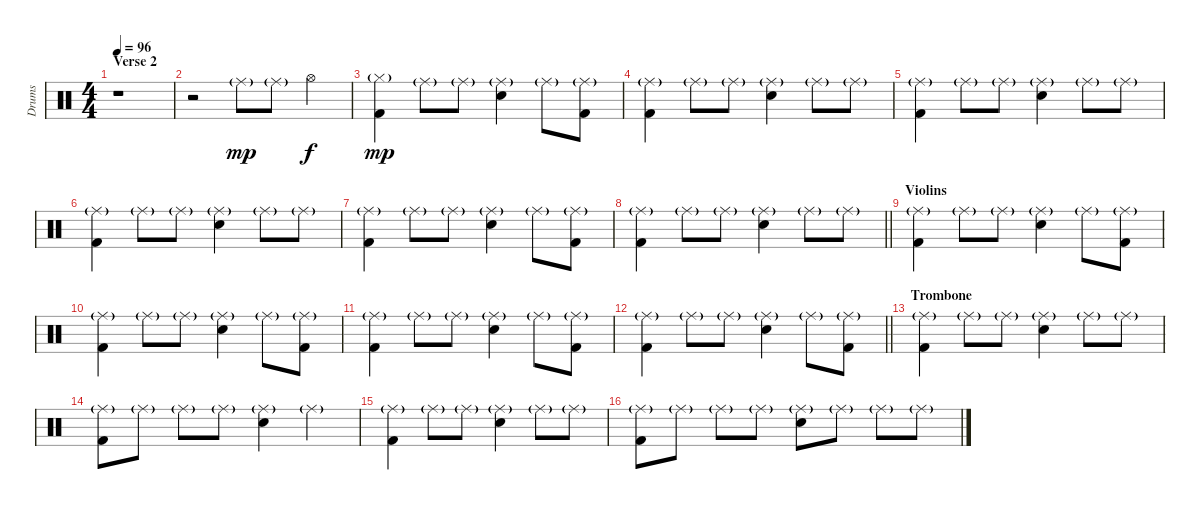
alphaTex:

\track ("Drums" "Drums") {instrument percussion}
\staff {score}
\articulation defaults
\ts (4 4)
\section ("" "Verse 2")
\tempo 96
\clef neutral
\ks c
r.1{dy f} |
r.2 "Ride (middle)"{g}.8{dy mp} "Ride (middle)"{g}.8 "Hi-Hat (open)".4{dy f} |
("Hi-Hat (closed)"{g} "Kick (hit) 2").4{dy mp} "Ride (middle)"{g}.8 "Ride (middle)"{g}.8 ("Ride (middle)"{g} "Electric Snare (hit)").4 "Ride (middle)"{g}.8 ("Ride (middle)"{g} "Kick (hit) 2").8 |
("Ride (middle)"{g} "Kick (hit) 2").4 "Ride (middle)"{g}.8 "Ride (middle)"{g}.8 ("Ride (middle)"{g} "Electric Snare (hit)").4 "Ride (middle)"{g}.8 "Ride (middle)"{g}.8 |
("Ride (middle)"{g} "Kick (hit) 2").4 "Ride (middle)"{g}.8 "Ride (middle)"{g}.8 ("Ride (middle)"{g} "Electric Snare (hit)").4 "Ride (middle)"{g}.8 "Ride (middle)"{g}.8 |
("Ride (middle)"{g} "Kick (hit) 2").4 "Ride (middle)"{g}.8 "Ride (middle)"{g}.8 ("Ride (middle)"{g} "Electric Snare (hit)").4 "Ride (middle)"{g}.8 "Ride (middle)"{g}.8 |
("Ride (middle)"{g} "Kick (hit) 2").4 "Ride (middle)"{g}.8 "Ride (middle)"{g}.8 ("Ride (middle)"{g} "Electric Snare (hit)").4 "Ride (middle)"{g}.8 ("Ride (middle)"{g} "Kick (hit) 2").8 |
\barLineRight lightlight
("Ride (middle)"{g} "Kick (hit) 2").4 "Ride (middle)"{g}.8 "Ride (middle)"{g}.8 ("Ride (middle)"{g} "Electric Snare (hit)").4 "Ride (middle)"{g}.8 "Ride (middle)"{g}.8 |
\section ("" "Violins")
("Ride (middle)"{g} "Kick (hit) 2").4 "Ride (middle)"{g}.8 "Ride (middle)"{g}.8 ("Ride (middle)"{g} "Electric Snare (hit)").4 "Ride (middle)"{g}.8 ("Ride (middle)"{g} "Kick (hit) 2").8 |
("Ride (middle)"{g} "Kick (hit) 2").4 "Ride (middle)"{g}.8 "Ride (middle)"{g}.8 ("Ride (middle)"{g} "Electric Snare (hit)").4 "Ride (middle)"{g}.8 ("Ride (middle)"{g} "Kick (hit) 2").8 |
("Ride (middle)"{g} "Kick (hit) 2").4 "Ride (middle)"{g}.8 "Ride (middle)"{g}.8 ("Ride (middle)"{g} "Electric Snare (hit)").4 "Ride (middle)"{g}.8 ("Ride (middle)"{g} "Kick (hit) 2").8 |
\barLineRight lightlight
("Ride (middle)"{g} "Kick (hit) 2").4 "Ride (middle)"{g}.8 "Ride (middle)"{g}.8 ("Ride (middle)"{g} "Electric Snare (hit)").4 "Ride (middle)"{g}.8 ("Ride (middle)"{g} "Kick (hit) 2").8 |
\section ("" "Trombone")
("Ride (middle)"{g} "Kick (hit) 2").4 "Ride (middle)"{g}.8 "Ride (middle)"{g}.8 ("Ride (middle)"{g} "Electric Snare (hit)").4 "Ride (middle)"{g}.8 "Ride (middle)"{g}.8 |
("Ride (middle)"{g} "Kick (hit) 2").8 "Ride (middle)"{g}.8 "Ride (middle)"{g}.8 "Ride (middle)"{g}.8 ("Ride (middle)"{g} "Electric Snare (hit)").4 "Ride (middle)"{g}.4 |
("Ride (middle)"{g} "Kick (hit) 2").4 "Ride (middle)"{g}.8 "Ride (middle)"{g}.8 ("Ride (middle)"{g} "Electric Snare (hit)").4 "Ride (middle)"{g}.8 "Ride (middle)"{g}.8 |
("Ride (middle)"{g} "Kick (hit) 2").8 "Ride (middle)"{g}.8 "Ride (middle)"{g}.8 "Ride (middle)"{g}.8 ("Ride (middle)"{g} "Electric Snare (hit)").8 "Ride (middle)"{g}.8 "Ride (middle)"{g}.8 "Ride (middle)"{g}.8
